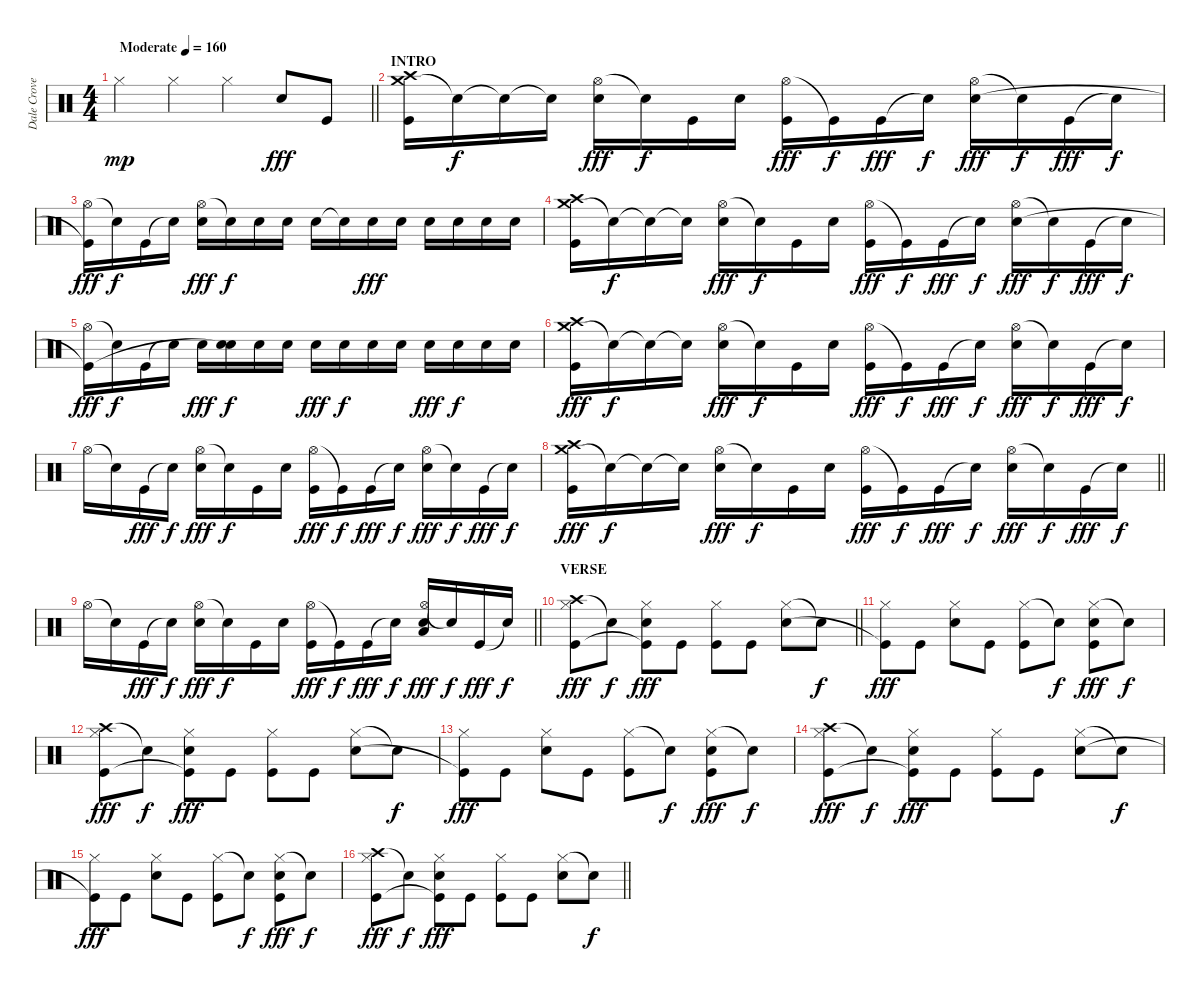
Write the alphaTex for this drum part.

\track ("Dale Crover" "Dale Crove") {instrument percussion}
\staff {score}
\articulation defaults
\ts (4 4)
\tempo (160 "Moderate")
\clef neutral
\barLineRight lightlight
\ks c "Hi-Hat (closed)".4{dy mp} "Hi-Hat (closed)".4 "Hi-Hat (closed)".4 "Snare (hit) 2".8{dy fff} "Kick (hit)".8
|
\section ("" "INTRO")
("Crash medium (hit)" "Crash high (hit)" "Kick (hit)").16 "Snare (hit)"{t}.16{dy f} "Snare (hit)"{t}.16 "Snare (hit)"{t}.16 ("Hi-Hat (open)" "Snare (hit) 2").16{dy fff} "Snare (hit)"{t}.16{dy f} "Kick (hit)".16 "Snare (hit) 2".16 ("Hi-Hat (open)" "Kick (hit)").16{dy fff} "Kick (hit)"{t}.16{dy f} "Kick (hit)".16{dy fff} "Snare (hit)"{t}.16{dy f} ("Hi-Hat (open)" "Snare (hit) 2").16{dy fff} "Snare (hit)"{t}.16{dy f} "Kick (hit)".16{dy fff} "Snare (hit)"{t}.16{dy f} |
("Hi-Hat (open)" "Kick (hit)"{t}).16{dy fff} "Snare (hit)"{t}.16{dy f} "Kick (hit)".16 "Snare (hit)"{t}.16 ("Hi-Hat (open)" "Snare (hit) 2").16{dy fff} "Snare (hit)"{t}.16{dy f} "Snare (hit) 2".16 "Snare (hit) 2".16 "Snare (hit) 2".16 "Snare (hit)"{t}.16 "Snare (hit) 2".16{dy fff} "Snare (hit) 2".16 "Snare (hit) 2".16 "Snare (hit) 2".16 "Snare (hit) 2".16 "Snare (hit) 2".16 |
("Crash medium (hit)" "Crash high (hit)" "Kick (hit)").16 "Snare (hit)"{t}.16{dy f} "Snare (hit)"{t}.16 "Snare (hit)"{t}.16 ("Hi-Hat (open)" "Snare (hit) 2").16{dy fff} "Snare (hit)"{t}.16{dy f} "Kick (hit)".16 "Snare (hit) 2".16 ("Hi-Hat (open)" "Kick (hit)").16{dy fff} "Kick (hit)"{t}.16{dy f} "Kick (hit)".16{dy fff} "Snare (hit)"{t}.16{dy f} ("Hi-Hat (open)" "Snare (hit) 2").16{dy fff} "Snare (hit)"{t}.16{dy f} "Kick (hit)".16{dy fff} "Snare (hit)"{t}.16{dy f} |
("Hi-Hat (open)" "Kick (hit)"{t}).16{dy fff} "Snare (hit)"{t}.16{dy f} "Kick (hit)".16 "Snare (hit)"{t}.16 "Snare (hit) 2".16{dy fff} ("Snare (hit) 2" "Snare (hit)"{t}).16{dy f} "Snare (hit) 2".16 "Snare (hit) 2".16 "Snare (hit) 2".16{dy fff} "Snare (hit) 2".16{dy f} "Snare (hit) 2".16 "Snare (hit) 2".16 "Snare (hit) 2".16{dy fff} "Snare (hit) 2".16{dy f} "Snare (hit) 2".16 "Snare (hit) 2".16 |
("Crash medium (hit)" "Crash high (hit)" "Kick (hit)").16{dy fff} "Snare (hit)"{t}.16{dy f} "Snare (hit)"{t}.16 "Snare (hit)"{t}.16 ("Hi-Hat (open)" "Snare (hit) 2").16{dy fff} "Snare (hit)"{t}.16{dy f} "Kick (hit)".16 "Snare (hit) 2".16 ("Hi-Hat (open)" "Kick (hit)").16{dy fff} "Kick (hit)"{t}.16{dy f} "Kick (hit)".16{dy fff} "Snare (hit)"{t}.16{dy f} ("Hi-Hat (open)" "Snare (hit) 2").16{dy fff} "Snare (hit)"{t}.16{dy f} "Kick (hit)".16{dy fff} "Snare (hit)"{t}.16{dy f} |
"Hi-Hat (open)".16 "Snare (hit)"{t}.16 "Kick (hit)".16{dy fff} "Snare (hit)"{t}.16{dy f} ("Hi-Hat (open)" "Snare (hit) 2").16{dy fff} "Snare (hit)"{t}.16{dy f} "Kick (hit)".16 "Snare (hit) 2".16 ("Hi-Hat (open)" "Kick (hit)").16{dy fff} "Kick (hit)"{t}.16{dy f} "Kick (hit)".16{dy fff} "Snare (hit)"{t}.16{dy f} ("Hi-Hat (open)" "Snare (hit) 2").16{dy fff} "Snare (hit)"{t}.16{dy f} "Kick (hit)".16{dy fff} "Snare (hit)"{t}.16{dy f} |
\barLineRight lightlight
("Crash medium (hit)" "Crash high (hit)" "Kick (hit)").16{dy fff} "Snare (hit)"{t}.16{dy f} "Snare (hit)"{t}.16 "Snare (hit)"{t}.16 ("Hi-Hat (open)" "Snare (hit) 2").16{dy fff} "Snare (hit)"{t}.16{dy f} "Kick (hit)".16 "Snare (hit) 2".16 ("Hi-Hat (open)" "Kick (hit)").16{dy fff} "Kick (hit)"{t}.16{dy f} "Kick (hit)".16{dy fff} "Snare (hit)"{t}.16{dy f} ("Hi-Hat (open)" "Snare (hit) 2").16{dy fff} "Snare (hit)"{t}.16{dy f} "Kick (hit)".16{dy fff} "Snare (hit)"{t}.16{dy f} |
\barLineRight lightlight "Hi-Hat (open)".16 "Snare (hit)"{t}.16 "Kick (hit)".16{dy fff} "Snare (hit)"{t}.16{dy f}
("Hi-Hat (open)" "Snare (hit) 2").16{dy fff} "Snare (hit)"{t}.16{dy f} "Kick (hit)".16 "Snare (hit) 2".16 ("Hi-Hat (open)" "Kick (hit)").16{dy fff} "Kick (hit)"{t}.16{dy f} "Kick (hit)".16{dy fff} "Snare (hit)"{t}.16{dy f} ("Hi-Hat (open)" "Snare (hit) 2" "Low Tom (hit)").16{dy fff} "Snare (hit)"{t}.16{dy f} "Kick (hit)".16{dy fff} "Snare (hit)"{t}.16{dy f} |
\section ("" "VERSE")
\barLineRight lightlight
("Crash high (hit)" "Hi-Hat (closed)" "Kick (hit)").8{dy fff} "Snare (hit)"{t}.8{dy f} ("Hi-Hat (closed)" "Snare (hit) 2" "Kick (hit)"{t}).8{dy fff} "Kick (hit)".8 ("Hi-Hat (closed)" "Kick (hit)").8 "Kick (hit)".8 ("Hi-Hat (closed)" "Snare (hit) 2").8 "Snare (hit)"{t}.8{dy f} |
("Hi-Hat (closed)" "Kick (hit)"{t}).8{dy fff} "Kick (hit)".8 ("Hi-Hat (closed)" "Snare (hit) 2").8 "Kick (hit)".8 ("Hi-Hat (closed)" "Kick (hit)").8 "Snare (hit)"{t}.8{dy f} ("Hi-Hat (closed)" "Snare (hit) 2" "Kick (hit)").8{dy fff} "Snare (hit)"{t}.8{dy f} |
("Crash high (hit)" "Hi-Hat (closed)" "Kick (hit)").8{dy fff} "Snare (hit)"{t}.8{dy f} ("Hi-Hat (closed)" "Snare (hit) 2" "Kick (hit)"{t}).8{dy fff} "Kick (hit)".8 ("Hi-Hat (closed)" "Kick (hit)").8 "Kick (hit)".8 ("Hi-Hat (closed)" "Snare (hit) 2").8 "Snare (hit)"{t}.8{dy f} |
("Hi-Hat (closed)" "Kick (hit)"{t}).8{dy fff} "Kick (hit)".8 ("Hi-Hat (closed)" "Snare (hit) 2").8 "Kick (hit)".8 ("Hi-Hat (closed)" "Kick (hit)").8 "Snare (hit)"{t}.8{dy f} ("Hi-Hat (closed)" "Snare (hit) 2" "Kick (hit)").8{dy fff} "Snare (hit)"{t}.8{dy f} |
("Crash high (hit)" "Hi-Hat (closed)" "Kick (hit)").8{dy fff} "Snare (hit)"{t}.8{dy f} ("Hi-Hat (closed)" "Snare (hit) 2" "Kick (hit)"{t}).8{dy fff} "Kick (hit)".8 ("Hi-Hat (closed)" "Kick (hit)").8 "Kick (hit)".8 ("Hi-Hat (closed)" "Snare (hit) 2").8 "Snare (hit)"{t}.8{dy f} |
("Hi-Hat (closed)" "Kick (hit)"{t}).8{dy fff} "Kick (hit)".8 ("Hi-Hat (closed)" "Snare (hit) 2").8 "Kick (hit)".8 ("Hi-Hat (closed)" "Kick (hit)").8 "Snare (hit)"{t}.8{dy f} ("Hi-Hat (closed)" "Snare (hit) 2" "Kick (hit)").8{dy fff} "Snare (hit)"{t}.8{dy f} |
\barLineRight lightlight
("Crash high (hit)" "Hi-Hat (closed)" "Kick (hit)").8{dy fff} "Snare (hit)"{t}.8{dy f} ("Hi-Hat (closed)" "Snare (hit) 2" "Kick (hit)"{t}).8{dy fff} "Kick (hit)".8 ("Hi-Hat (closed)" "Kick (hit)").8 "Kick (hit)".8 ("Hi-Hat (closed)" "Snare (hit) 2").8 "Snare (hit)"{t}.8{dy f}
